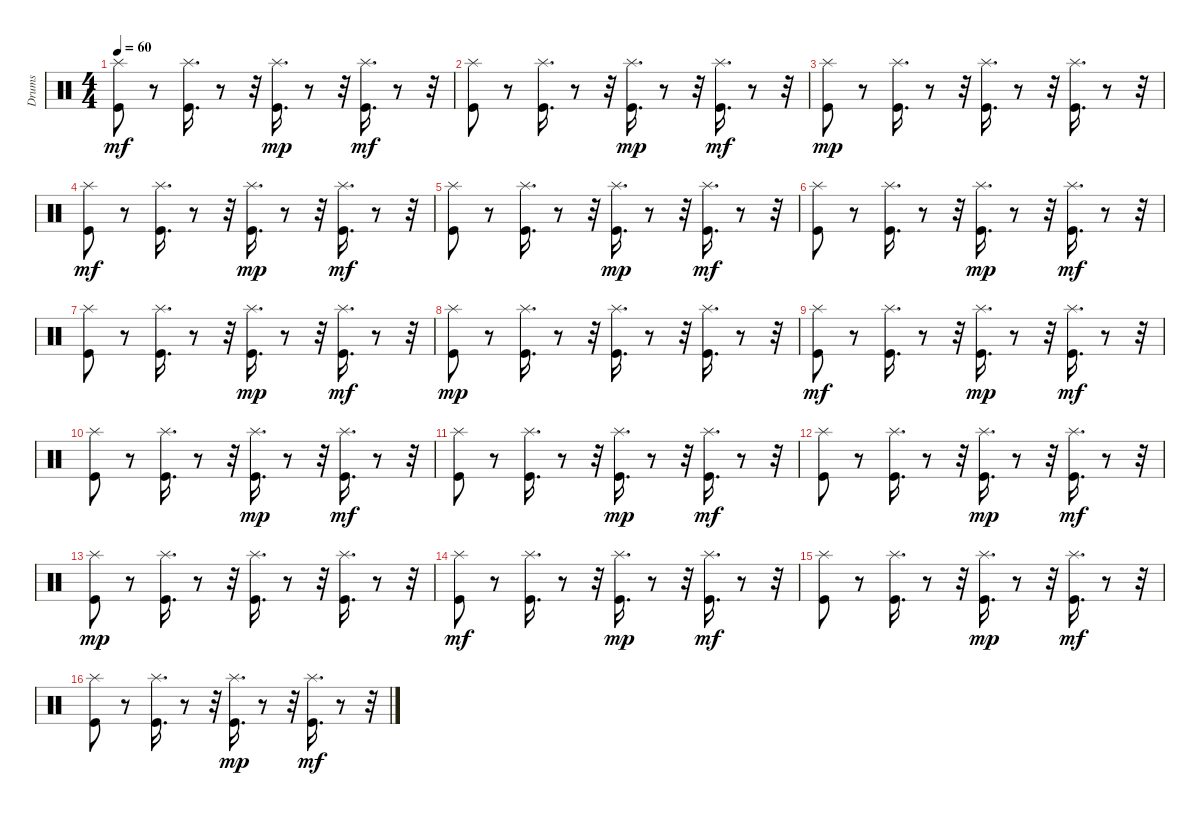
\track ("Drums" "Drums") {instrument percussion}
\staff {score}
\articulation defaults
\ts (4 4)
\tempo 60
\clef neutral
\ks c
("Splash (hit)" "Kick (hit)").8{dy mf} r.8 ("Kick (hit)" "Splash (hit)").16{d} r.8 r.32 ("Splash (hit)" "Kick (hit)").16{d dy mp} r.8 r.32 ("Kick (hit)" "Splash (hit)").16{d dy mf} r.8 r.32 |
("Splash (hit)" "Kick (hit)").8 r.8 ("Kick (hit)" "Splash (hit)").16{d} r.8 r.32 ("Splash (hit)" "Kick (hit)").16{d dy mp} r.8 r.32 ("Kick (hit)" "Splash (hit)").16{d dy mf} r.8 r.32 |
("Splash (hit)" "Kick (hit)").8{dy mp} r.8 ("Kick (hit)" "Splash (hit)").16{d} r.8 r.32 ("Splash (hit)" "Kick (hit)").16{d} r.8 r.32 ("Kick (hit)" "Splash (hit)").16{d} r.8 r.32 |
("Splash (hit)" "Kick (hit)").8{dy mf} r.8 ("Kick (hit)" "Splash (hit)").16{d} r.8 r.32 ("Splash (hit)" "Kick (hit)").16{d dy mp} r.8 r.32 ("Kick (hit)" "Splash (hit)").16{d dy mf} r.8 r.32 |
("Splash (hit)" "Kick (hit)").8 r.8 ("Kick (hit)" "Splash (hit)").16{d} r.8 r.32 ("Splash (hit)" "Kick (hit)").16{d dy mp} r.8 r.32 ("Kick (hit)" "Splash (hit)").16{d dy mf} r.8 r.32 |
("Splash (hit)" "Kick (hit)").8 r.8 ("Kick (hit)" "Splash (hit)").16{d} r.8 r.32 ("Splash (hit)" "Kick (hit)").16{d dy mp} r.8 r.32 ("Kick (hit)" "Splash (hit)").16{d dy mf} r.8 r.32 |
("Splash (hit)" "Kick (hit)").8 r.8 ("Kick (hit)" "Splash (hit)").16{d} r.8 r.32 ("Splash (hit)" "Kick (hit)").16{d dy mp} r.8 r.32 ("Kick (hit)" "Splash (hit)").16{d dy mf} r.8 r.32 |
("Splash (hit)" "Kick (hit)").8{dy mp} r.8 ("Kick (hit)" "Splash (hit)").16{d} r.8 r.32 ("Splash (hit)" "Kick (hit)").16{d} r.8 r.32 ("Kick (hit)" "Splash (hit)").16{d} r.8 r.32 |
("Splash (hit)" "Kick (hit)").8{dy mf} r.8 ("Kick (hit)" "Splash (hit)").16{d} r.8 r.32 ("Splash (hit)" "Kick (hit)").16{d dy mp} r.8 r.32 ("Kick (hit)" "Splash (hit)").16{d dy mf} r.8 r.32 |
("Splash (hit)" "Kick (hit)").8 r.8 ("Kick (hit)" "Splash (hit)").16{d} r.8 r.32 ("Splash (hit)" "Kick (hit)").16{d dy mp} r.8 r.32 ("Kick (hit)" "Splash (hit)").16{d dy mf} r.8 r.32 |
("Splash (hit)" "Kick (hit)").8 r.8 ("Kick (hit)" "Splash (hit)").16{d} r.8 r.32 ("Splash (hit)" "Kick (hit)").16{d dy mp} r.8 r.32 ("Kick (hit)" "Splash (hit)").16{d dy mf} r.8 r.32 |
("Splash (hit)" "Kick (hit)").8 r.8 ("Kick (hit)" "Splash (hit)").16{d} r.8 r.32 ("Splash (hit)" "Kick (hit)").16{d dy mp} r.8 r.32 ("Kick (hit)" "Splash (hit)").16{d dy mf} r.8 r.32 |
("Splash (hit)" "Kick (hit)").8{dy mp} r.8 ("Kick (hit)" "Splash (hit)").16{d} r.8 r.32 ("Splash (hit)" "Kick (hit)").16{d} r.8 r.32 ("Kick (hit)" "Splash (hit)").16{d} r.8 r.32 |
("Splash (hit)" "Kick (hit)").8{dy mf} r.8 ("Kick (hit)" "Splash (hit)").16{d} r.8 r.32 ("Splash (hit)" "Kick (hit)").16{d dy mp} r.8 r.32 ("Kick (hit)" "Splash (hit)").16{d dy mf} r.8 r.32 |
("Splash (hit)" "Kick (hit)").8 r.8 ("Kick (hit)" "Splash (hit)").16{d} r.8 r.32 ("Splash (hit)" "Kick (hit)").16{d dy mp} r.8 r.32 ("Kick (hit)" "Splash (hit)").16{d dy mf} r.8 r.32 |
("Splash (hit)" "Kick (hit)").8 r.8 ("Kick (hit)" "Splash (hit)").16{d} r.8 r.32 ("Splash (hit)" "Kick (hit)").16{d dy mp} r.8 r.32 ("Kick (hit)" "Splash (hit)").16{d dy mf} r.8 r.32
